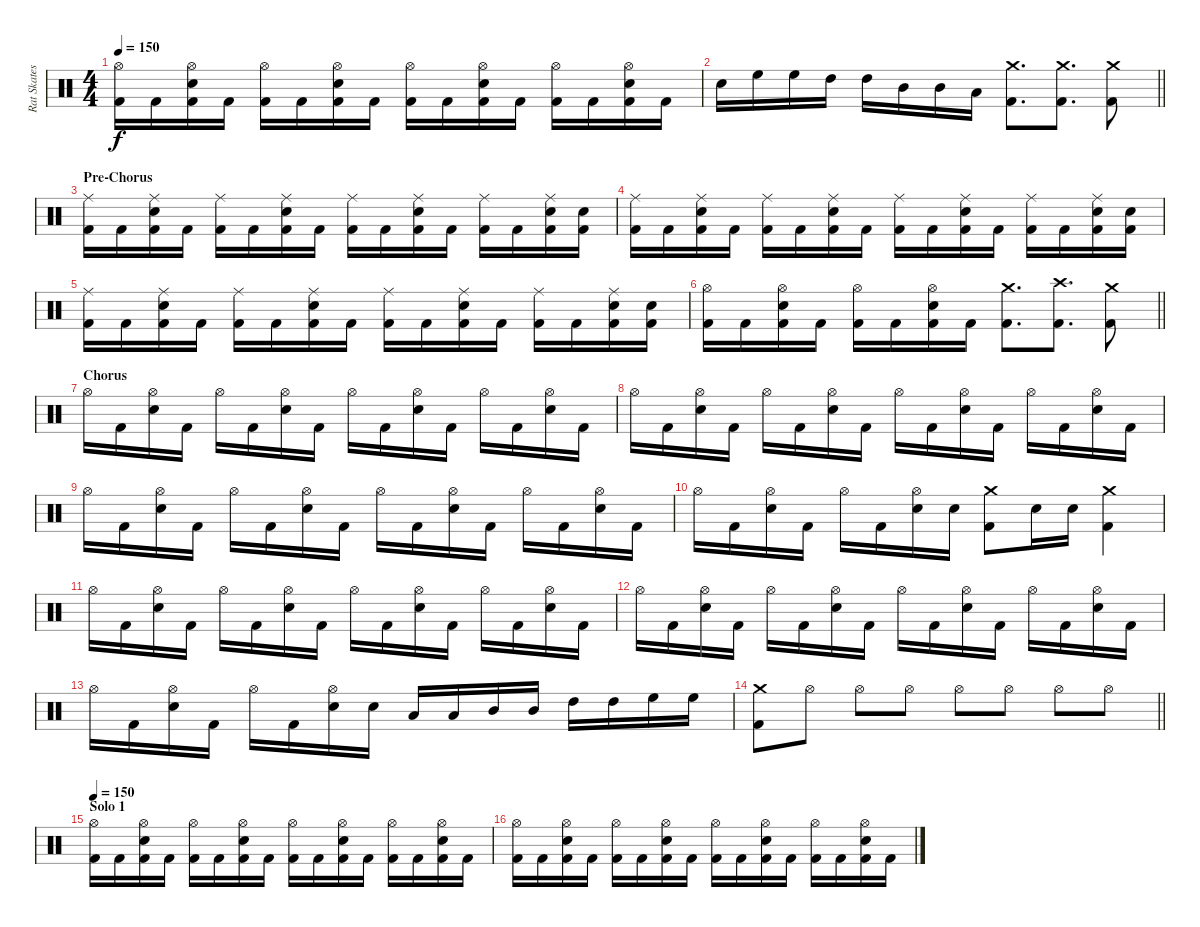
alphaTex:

\track ("Rat Skates" "Rat Skates") {instrument percussion}
\staff {score}
\articulation defaults
\ts (4 4)
\tempo 150
\clef neutral
\ks c
("Hi-Hat (open)" "Kick (hit) 2").16{dy f} "Kick (hit) 2".16 ("Hi-Hat (open)" "Snare (hit) 2" "Kick (hit) 2").16 "Kick (hit) 2".16 ("Hi-Hat (open)" "Kick (hit) 2").16 "Kick (hit) 2".16 ("Hi-Hat (open)" "Snare (hit) 2" "Kick (hit) 2").16 "Kick (hit) 2".16 ("Hi-Hat (open)" "Kick (hit) 2").16 "Kick (hit) 2".16 ("Hi-Hat (open)" "Snare (hit) 2" "Kick (hit) 2").16 "Kick (hit) 2".16 ("Hi-Hat (open)" "Kick (hit) 2").16 "Kick (hit) 2".16 ("Hi-Hat (open)" "Snare (hit) 2" "Kick (hit) 2").16 "Kick (hit) 2".16 |
\barLineRight lightlight "Snare (hit) 2".16 "High Floor Tom (hit)".16 "High Floor Tom (hit)".16 "High Tom (hit)".16 "High Tom (hit)".16 "Mid Tom (hit)".16 "Mid Tom (hit)".16 "Low Tom (hit)".16
("Crash medium (hit)" "Kick (hit) 2").8{d} ("Crash medium (hit)" "Kick (hit) 2").8{d} ("Crash medium (hit)" "Kick (hit) 2").8 |
\section ("" "Pre-Chorus")
("Ride (middle)" "Kick (hit) 2").16 "Kick (hit) 2".16 ("Ride (middle)" "Snare (hit) 2" "Kick (hit) 2").16 "Kick (hit) 2".16 ("Ride (middle)" "Kick (hit) 2").16 "Kick (hit) 2".16 ("Ride (middle)" "Snare (hit) 2" "Kick (hit) 2").16 "Kick (hit) 2".16 ("Ride (middle)" "Kick (hit) 2").16 "Kick (hit) 2".16 ("Ride (middle)" "Snare (hit) 2" "Kick (hit) 2").16 "Kick (hit) 2".16 ("Ride (middle)" "Kick (hit) 2").16 "Kick (hit) 2".16 ("Ride (middle)" "Snare (hit) 2" "Kick (hit) 2").16 ("Snare (hit) 2" "Kick (hit) 2").16 |
("Ride (middle)" "Kick (hit) 2").16 "Kick (hit) 2".16 ("Ride (middle)" "Snare (hit) 2" "Kick (hit) 2").16 "Kick (hit) 2".16 ("Ride (middle)" "Kick (hit) 2").16 "Kick (hit) 2".16 ("Ride (middle)" "Snare (hit) 2" "Kick (hit) 2").16 "Kick (hit) 2".16 ("Ride (middle)" "Kick (hit) 2").16 "Kick (hit) 2".16 ("Ride (middle)" "Snare (hit) 2" "Kick (hit) 2").16 "Kick (hit) 2".16 ("Ride (middle)" "Kick (hit) 2").16 "Kick (hit) 2".16 ("Ride (middle)" "Snare (hit) 2" "Kick (hit) 2").16 ("Snare (hit) 2" "Kick (hit) 2").16 |
("Ride (middle)" "Kick (hit) 2").16 "Kick (hit) 2".16 ("Ride (middle)" "Snare (hit) 2" "Kick (hit) 2").16 "Kick (hit) 2".16 ("Ride (middle)" "Kick (hit) 2").16 "Kick (hit) 2".16 ("Ride (middle)" "Snare (hit) 2" "Kick (hit) 2").16 "Kick (hit) 2".16 ("Ride (middle)" "Kick (hit) 2").16 "Kick (hit) 2".16 ("Ride (middle)" "Snare (hit) 2" "Kick (hit) 2").16 "Kick (hit) 2".16 ("Ride (middle)" "Kick (hit) 2").16 "Kick (hit) 2".16 ("Ride (middle)" "Snare (hit) 2" "Kick (hit) 2").16 ("Snare (hit) 2" "Kick (hit) 2").16 |
\barLineRight lightlight
("Hi-Hat (open)" "Kick (hit) 2").16 "Kick (hit) 2".16 ("Hi-Hat (open)" "Snare (hit) 2" "Kick (hit) 2").16 "Kick (hit) 2".16 ("Hi-Hat (open)" "Kick (hit) 2").16 "Kick (hit) 2".16 ("Hi-Hat (open)" "Snare (hit) 2" "Kick (hit) 2").16 "Kick (hit) 2".16 ("Crash medium (hit)" "Kick (hit) 2").8{d} ("Crash high (hit)" "Kick (hit) 2").8{d} ("Crash medium (hit)" "Kick (hit) 2").8 |
\section ("" "Chorus")
"Hi-Hat (open)".16 "Kick (hit) 2".16 ("Hi-Hat (open)" "Snare (hit) 2").16 "Kick (hit) 2".16 "Hi-Hat (open)".16 "Kick (hit) 2".16 ("Hi-Hat (open)" "Snare (hit) 2").16 "Kick (hit) 2".16 "Hi-Hat (open)".16 "Kick (hit) 2".16 ("Hi-Hat (open)" "Snare (hit) 2").16 "Kick (hit) 2".16 "Hi-Hat (open)".16 "Kick (hit) 2".16 ("Hi-Hat (open)" "Snare (hit) 2").16 "Kick (hit) 2".16 |
"Hi-Hat (open)".16 "Kick (hit) 2".16 ("Hi-Hat (open)" "Snare (hit) 2").16 "Kick (hit) 2".16 "Hi-Hat (open)".16 "Kick (hit) 2".16 ("Hi-Hat (open)" "Snare (hit) 2").16 "Kick (hit) 2".16 "Hi-Hat (open)".16 "Kick (hit) 2".16 ("Hi-Hat (open)" "Snare (hit) 2").16 "Kick (hit) 2".16 "Hi-Hat (open)".16 "Kick (hit) 2".16 ("Hi-Hat (open)" "Snare (hit) 2").16 "Kick (hit) 2".16 |
"Hi-Hat (open)".16 "Kick (hit) 2".16 ("Hi-Hat (open)" "Snare (hit) 2").16 "Kick (hit) 2".16 "Hi-Hat (open)".16 "Kick (hit) 2".16 ("Hi-Hat (open)" "Snare (hit) 2").16 "Kick (hit) 2".16 "Hi-Hat (open)".16 "Kick (hit) 2".16 ("Hi-Hat (open)" "Snare (hit) 2").16 "Kick (hit) 2".16 "Hi-Hat (open)".16 "Kick (hit) 2".16 ("Hi-Hat (open)" "Snare (hit) 2").16 "Kick (hit) 2".16 |
"Hi-Hat (open)".16 "Kick (hit) 2".16 ("Hi-Hat (open)" "Snare (hit) 2").16 "Kick (hit) 2".16 "Hi-Hat (open)".16 "Kick (hit) 2".16 ("Hi-Hat (open)" "Snare (hit) 2").16 "Snare (hit) 2".16 ("Crash medium (hit)" "Kick (hit) 2").8 "Snare (hit) 2".16 "Snare (hit) 2".16 ("Crash medium (hit)" "Kick (hit) 2").4 |
"Hi-Hat (open)".16 "Kick (hit) 2".16 ("Hi-Hat (open)" "Snare (hit) 2").16 "Kick (hit) 2".16 "Hi-Hat (open)".16 "Kick (hit) 2".16 ("Hi-Hat (open)" "Snare (hit) 2").16 "Kick (hit) 2".16 "Hi-Hat (open)".16 "Kick (hit) 2".16 ("Hi-Hat (open)" "Snare (hit) 2").16 "Kick (hit) 2".16 "Hi-Hat (open)".16 "Kick (hit) 2".16 ("Hi-Hat (open)" "Snare (hit) 2").16 "Kick (hit) 2".16 |
"Hi-Hat (open)".16 "Kick (hit) 2".16 ("Hi-Hat (open)" "Snare (hit) 2").16 "Kick (hit) 2".16 "Hi-Hat (open)".16 "Kick (hit) 2".16 ("Hi-Hat (open)" "Snare (hit) 2").16 "Kick (hit) 2".16 "Hi-Hat (open)".16 "Kick (hit) 2".16 ("Hi-Hat (open)" "Snare (hit) 2").16 "Kick (hit) 2".16 "Hi-Hat (open)".16 "Kick (hit) 2".16 ("Hi-Hat (open)" "Snare (hit) 2").16 "Kick (hit) 2".16 |
"Hi-Hat (open)".16 "Kick (hit) 2".16 ("Hi-Hat (open)" "Snare (hit) 2").16 "Kick (hit) 2".16 "Hi-Hat (open)".16 "Kick (hit) 2".16 ("Hi-Hat (open)" "Snare (hit) 2").16 "Snare (hit) 2".16 "Low Tom (hit)".16 "Low Tom (hit)".16 "Mid Tom (hit)".16 "Mid Tom (hit)".16 "High Tom (hit)".16 "High Tom (hit)".16 "High Floor Tom (hit)".16 "High Floor Tom (hit)".16 |
\barLineRight lightlight
("Crash medium (hit)" "Kick (hit) 2").8 "Hi-Hat (open)".8 "Hi-Hat (open)".8 "Hi-Hat (open)".8 "Hi-Hat (open)".8 "Hi-Hat (open)".8 "Hi-Hat (open)".8 "Hi-Hat (open)".8 |
\section ("" "Solo 1")
\tempo 150
("Hi-Hat (open)" "Kick (hit) 2").16 "Kick (hit) 2".16 ("Hi-Hat (open)" "Snare (hit) 2" "Kick (hit) 2").16 "Kick (hit) 2".16 ("Hi-Hat (open)" "Kick (hit) 2").16 "Kick (hit) 2".16 ("Hi-Hat (open)" "Snare (hit) 2" "Kick (hit) 2").16 "Kick (hit) 2".16 ("Hi-Hat (open)" "Kick (hit) 2").16 "Kick (hit) 2".16 ("Hi-Hat (open)" "Snare (hit) 2" "Kick (hit) 2").16 "Kick (hit) 2".16 ("Hi-Hat (open)" "Kick (hit) 2").16 "Kick (hit) 2".16 ("Hi-Hat (open)" "Snare (hit) 2" "Kick (hit) 2").16 "Kick (hit) 2".16 |
("Hi-Hat (open)" "Kick (hit) 2").16 "Kick (hit) 2".16 ("Hi-Hat (open)" "Snare (hit) 2" "Kick (hit) 2").16 "Kick (hit) 2".16 ("Hi-Hat (open)" "Kick (hit) 2").16 "Kick (hit) 2".16 ("Hi-Hat (open)" "Snare (hit) 2" "Kick (hit) 2").16 "Kick (hit) 2".16 ("Hi-Hat (open)" "Kick (hit) 2").16 "Kick (hit) 2".16 ("Hi-Hat (open)" "Snare (hit) 2" "Kick (hit) 2").16 "Kick (hit) 2".16 ("Hi-Hat (open)" "Kick (hit) 2").16 "Kick (hit) 2".16 ("Hi-Hat (open)" "Snare (hit) 2" "Kick (hit) 2").16 "Kick (hit) 2".16
